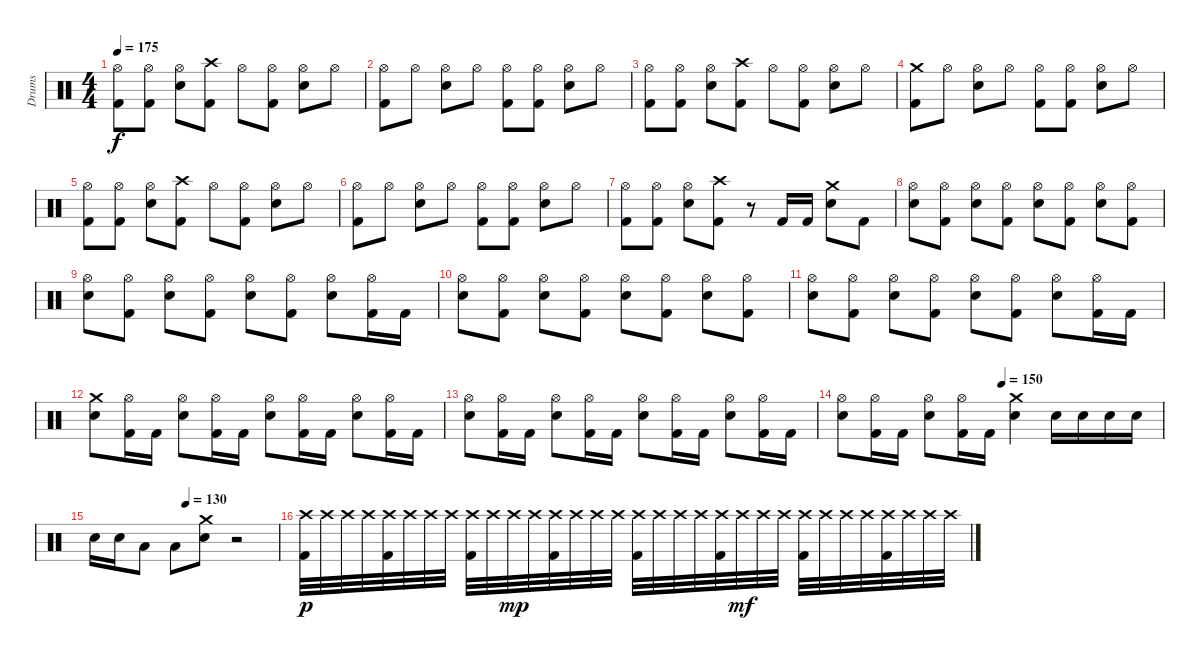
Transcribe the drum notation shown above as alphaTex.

\track ("Drums" "Drums") {instrument percussion}
\staff {score}
\articulation defaults
\ts (4 4)
\tempo 175
\clef neutral
\ks c
("Hi-Hat (open)" "Kick (hit) 2").8{dy f} ("Hi-Hat (open)" "Kick (hit) 2").8 ("Hi-Hat (open)" "Snare (hit) 2").8 ("Crash high (hit)" "Kick (hit) 2").8 "Hi-Hat (open)".8 ("Hi-Hat (open)" "Kick (hit) 2").8 ("Hi-Hat (open)" "Snare (hit) 2").8 "Hi-Hat (open)".8 |
("Hi-Hat (open)" "Kick (hit) 2").8 "Hi-Hat (open)".8 ("Hi-Hat (open)" "Snare (hit) 2").8 "Hi-Hat (open)".8 ("Hi-Hat (open)" "Kick (hit) 2").8 ("Hi-Hat (open)" "Kick (hit) 2").8 ("Hi-Hat (open)" "Snare (hit) 2").8 "Hi-Hat (open)".8 |
("Hi-Hat (open)" "Kick (hit) 2").8 ("Hi-Hat (open)" "Kick (hit) 2").8 ("Hi-Hat (open)" "Snare (hit) 2").8 ("Crash high (hit)" "Kick (hit) 2").8 "Hi-Hat (open)".8 ("Hi-Hat (open)" "Kick (hit) 2").8 ("Hi-Hat (open)" "Snare (hit) 2").8 "Hi-Hat (open)".8 |
("Crash medium (hit)" "Kick (hit) 2").8 "Hi-Hat (open)".8 ("Hi-Hat (open)" "Snare (hit) 2").8 "Hi-Hat (open)".8 ("Hi-Hat (open)" "Kick (hit) 2").8 ("Hi-Hat (open)" "Kick (hit) 2").8 ("Hi-Hat (open)" "Snare (hit) 2").8 "Hi-Hat (open)".8 |
("Hi-Hat (open)" "Kick (hit) 2").8 ("Hi-Hat (open)" "Kick (hit) 2").8 ("Hi-Hat (open)" "Snare (hit) 2").8 ("Crash high (hit)" "Kick (hit) 2").8 "Hi-Hat (open)".8 ("Hi-Hat (open)" "Kick (hit) 2").8 ("Hi-Hat (open)" "Snare (hit) 2").8 "Hi-Hat (open)".8 |
("Hi-Hat (open)" "Kick (hit) 2").8 "Hi-Hat (open)".8 ("Hi-Hat (open)" "Snare (hit) 2").8 "Hi-Hat (open)".8 ("Hi-Hat (open)" "Kick (hit) 2").8 ("Hi-Hat (open)" "Kick (hit) 2").8 ("Hi-Hat (open)" "Snare (hit) 2").8 "Hi-Hat (open)".8 |
("Hi-Hat (open)" "Kick (hit) 2").8 ("Hi-Hat (open)" "Kick (hit) 2").8 ("Hi-Hat (open)" "Snare (hit) 2").8 ("Crash high (hit)" "Kick (hit) 2").8 r.8 "Kick (hit) 2".16 "Kick (hit) 2".16 ("Crash medium (hit)" "Snare (hit) 2").8 "Kick (hit) 2".8 |
("Hi-Hat (open)" "Snare (hit) 2").8 ("Hi-Hat (open)" "Kick (hit) 2").8 ("Hi-Hat (open)" "Snare (hit) 2").8 ("Hi-Hat (open)" "Kick (hit) 2").8 ("Hi-Hat (open)" "Snare (hit) 2").8 ("Hi-Hat (open)" "Kick (hit) 2").8 ("Hi-Hat (open)" "Snare (hit) 2").8 ("Hi-Hat (open)" "Kick (hit) 2").8 |
("Hi-Hat (open)" "Snare (hit) 2").8 ("Hi-Hat (open)" "Kick (hit) 2").8 ("Hi-Hat (open)" "Snare (hit) 2").8 ("Hi-Hat (open)" "Kick (hit) 2").8 ("Hi-Hat (open)" "Snare (hit) 2").8 ("Hi-Hat (open)" "Kick (hit) 2").8 ("Hi-Hat (open)" "Snare (hit) 2").8 ("Hi-Hat (open)" "Kick (hit) 2").16 "Kick (hit) 2".16 |
("Hi-Hat (open)" "Snare (hit) 2").8 ("Hi-Hat (open)" "Kick (hit) 2").8 ("Hi-Hat (open)" "Snare (hit) 2").8 ("Hi-Hat (open)" "Kick (hit) 2").8 ("Hi-Hat (open)" "Snare (hit) 2").8 ("Hi-Hat (open)" "Kick (hit) 2").8 ("Hi-Hat (open)" "Snare (hit) 2").8 ("Hi-Hat (open)" "Kick (hit) 2").8 |
("Hi-Hat (open)" "Snare (hit) 2").8 ("Hi-Hat (open)" "Kick (hit) 2").8 ("Hi-Hat (open)" "Snare (hit) 2").8 ("Hi-Hat (open)" "Kick (hit) 2").8 ("Hi-Hat (open)" "Snare (hit) 2").8 ("Hi-Hat (open)" "Kick (hit) 2").8 ("Hi-Hat (open)" "Snare (hit) 2").8 ("Hi-Hat (open)" "Kick (hit) 2").16 "Kick (hit) 2".16 |
("Crash medium (hit)" "Snare (hit) 2").8 ("Hi-Hat (open)" "Kick (hit) 2").16 "Kick (hit) 2".16 ("Hi-Hat (open)" "Snare (hit) 2").8 ("Hi-Hat (open)" "Kick (hit) 2").16 "Kick (hit) 2".16 ("Hi-Hat (open)" "Snare (hit) 2").8 ("Hi-Hat (open)" "Kick (hit) 2").16 "Kick (hit) 2".16 ("Hi-Hat (open)" "Snare (hit) 2").8 ("Hi-Hat (open)" "Kick (hit) 2").16 "Kick (hit) 2".16 |
("Hi-Hat (open)" "Snare (hit) 2").8 ("Hi-Hat (open)" "Kick (hit) 2").16 "Kick (hit) 2".16 ("Hi-Hat (open)" "Snare (hit) 2").8 ("Hi-Hat (open)" "Kick (hit) 2").16 "Kick (hit) 2".16 ("Hi-Hat (open)" "Snare (hit) 2").8 ("Hi-Hat (open)" "Kick (hit) 2").16 "Kick (hit) 2".16 ("Hi-Hat (open)" "Snare (hit) 2").8 ("Hi-Hat (open)" "Kick (hit) 2").16 "Kick (hit) 2".16 |
\tempo (150 0.5)
("Hi-Hat (open)" "Snare (hit) 2").8 ("Hi-Hat (open)" "Kick (hit) 2").16 "Kick (hit) 2".16 ("Hi-Hat (open)" "Snare (hit) 2").8 ("Hi-Hat (open)" "Kick (hit) 2").16 "Kick (hit) 2".16 ("Crash medium (hit)" "Snare (hit) 2").4 "Snare (hit) 2".16 "Snare (hit) 2".16 "Snare (hit) 2".16 "Snare (hit) 2".16 |
\tempo (130 0.5)
"Snare (hit) 2".16 "Snare (hit) 2".16 "Low Tom (hit)".8 "Low Tom (hit)".8 ("Crash medium (hit)" "Snare (hit) 2").8 r.2 |
("Crash high (hit)" "Kick (hit) 2").32{dy p} "Crash high (hit)".32 "Crash high (hit)".32 "Crash high (hit)".32 ("Crash high (hit)" "Kick (hit) 2").32 "Crash high (hit)".32 "Crash high (hit)".32 "Crash high (hit)".32 ("Crash high (hit)" "Kick (hit) 2").32 "Crash high (hit)".32 "Crash high (hit)".32{dy mp} "Crash high (hit)".32 ("Crash high (hit)" "Kick (hit) 2").32 "Crash high (hit)".32 "Crash high (hit)".32 "Crash high (hit)".32 ("Crash high (hit)" "Kick (hit) 2").32 "Crash high (hit)".32 "Crash high (hit)".32 "Crash high (hit)".32 ("Crash high (hit)" "Kick (hit) 2").32 "Crash high (hit)".32{dy mf} "Crash high (hit)".32 "Crash high (hit)".32 ("Crash high (hit)" "Kick (hit) 2").32 "Crash high (hit)".32 "Crash high (hit)".32 "Crash high (hit)".32 ("Crash high (hit)" "Kick (hit) 2").32 "Crash high (hit)".32 "Crash high (hit)".32 "Crash high (hit)".32
